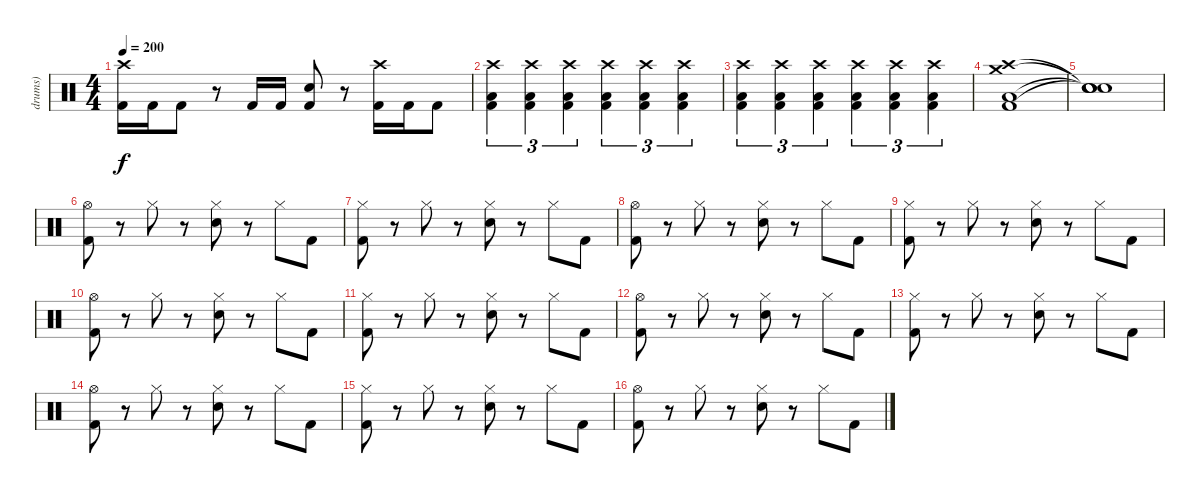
\track ("drums)" "drums)") {instrument percussion}
\staff {score}
\articulation defaults
\ts (4 4)
\tempo 200
\clef neutral
\ks c
("Crash high (hit)" "Kick (hit) 2").16{dy f} "Kick (hit) 2".16 "Kick (hit) 2".8 r.8 "Kick (hit) 2".16 "Kick (hit) 2".16 ("Electric Snare (hit)" "Kick (hit) 2").8 r.8 ("Crash high (hit)" "Kick (hit) 2").16 "Kick (hit) 2".16 "Kick (hit) 2".8 |
("Crash high (hit)" "Low Floor Tom (hit)" "Kick (hit) 2").4{tu (3 2)} ("Crash high (hit)" "Low Floor Tom (hit)" "Kick (hit) 2").4{tu (3 2)} ("Crash high (hit)" "Low Floor Tom (hit)" "Kick (hit) 2").4{tu (3 2)} ("Crash high (hit)" "Low Floor Tom (hit)" "Kick (hit) 2").4{tu (3 2)} ("Crash high (hit)" "Low Floor Tom (hit)" "Kick (hit) 2").4{tu (3 2)} ("Crash high (hit)" "Low Floor Tom (hit)" "Kick (hit) 2").4{tu (3 2)} |
("Crash high (hit)" "Low Floor Tom (hit)" "Kick (hit) 2").4{tu (3 2)} ("Crash high (hit)" "Low Floor Tom (hit)" "Kick (hit) 2").4{tu (3 2)} ("Crash high (hit)" "Low Floor Tom (hit)" "Kick (hit) 2").4{tu (3 2)} ("Crash high (hit)" "Low Floor Tom (hit)" "Kick (hit) 2").4{tu (3 2)} ("Crash high (hit)" "Low Floor Tom (hit)" "Kick (hit) 2").4{tu (3 2)} ("Crash high (hit)" "Low Floor Tom (hit)" "Kick (hit) 2").4{tu (3 2)} |
("Crash high (hit)" "Crash medium (hit)" "Low Floor Tom (hit)" "Kick (hit) 2").1 |
("Snare (hit)"{t} "Snare (hit)"{t} "Snare (hit)"{t} "Snare (hit)"{t}).1 |
("Hi-Hat (open)" "Kick (hit) 2").8 r.8 "Hi-Hat (closed)".8 r.8 ("Hi-Hat (closed)" "Electric Snare (hit)").8 r.8 "Hi-Hat (closed)".8 "Kick (hit) 2".8 |
("Hi-Hat (closed)" "Kick (hit) 2").8 r.8 "Hi-Hat (closed)".8 r.8 ("Hi-Hat (closed)" "Electric Snare (hit)").8 r.8 "Hi-Hat (closed)".8 "Kick (hit) 2".8 |
("Hi-Hat (open)" "Kick (hit) 2").8 r.8 "Hi-Hat (closed)".8 r.8 ("Hi-Hat (closed)" "Electric Snare (hit)").8 r.8 "Hi-Hat (closed)".8 "Kick (hit) 2".8 |
("Hi-Hat (closed)" "Kick (hit) 2").8 r.8 "Hi-Hat (closed)".8 r.8 ("Hi-Hat (closed)" "Electric Snare (hit)").8 r.8 "Hi-Hat (closed)".8 "Kick (hit) 2".8 |
("Hi-Hat (open)" "Kick (hit) 2").8 r.8 "Hi-Hat (closed)".8 r.8 ("Hi-Hat (closed)" "Electric Snare (hit)").8 r.8 "Hi-Hat (closed)".8 "Kick (hit) 2".8 |
("Hi-Hat (closed)" "Kick (hit) 2").8 r.8 "Hi-Hat (closed)".8 r.8 ("Hi-Hat (closed)" "Electric Snare (hit)").8 r.8 "Hi-Hat (closed)".8 "Kick (hit) 2".8 |
("Hi-Hat (open)" "Kick (hit) 2").8 r.8 "Hi-Hat (closed)".8 r.8 ("Hi-Hat (closed)" "Electric Snare (hit)").8 r.8 "Hi-Hat (closed)".8 "Kick (hit) 2".8 |
("Hi-Hat (closed)" "Kick (hit) 2").8 r.8 "Hi-Hat (closed)".8 r.8 ("Hi-Hat (closed)" "Electric Snare (hit)").8 r.8 "Hi-Hat (closed)".8 "Kick (hit) 2".8 |
("Hi-Hat (open)" "Kick (hit) 2").8 r.8 "Hi-Hat (closed)".8 r.8 ("Hi-Hat (closed)" "Electric Snare (hit)").8 r.8 "Hi-Hat (closed)".8 "Kick (hit) 2".8 |
("Hi-Hat (closed)" "Kick (hit) 2").8 r.8 "Hi-Hat (closed)".8 r.8 ("Hi-Hat (closed)" "Electric Snare (hit)").8 r.8 "Hi-Hat (closed)".8 "Kick (hit) 2".8 |
("Hi-Hat (open)" "Kick (hit) 2").8 r.8 "Hi-Hat (closed)".8 r.8 ("Hi-Hat (closed)" "Electric Snare (hit)").8 r.8 "Hi-Hat (closed)".8 "Kick (hit) 2".8
